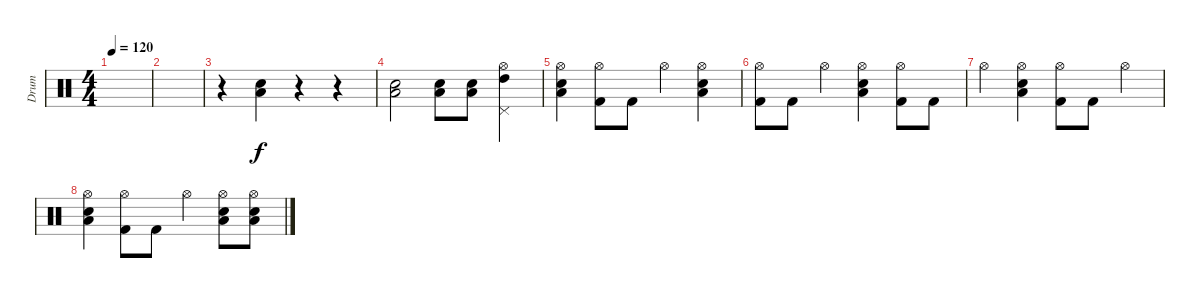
\track ("Drum" "Drum") {instrument percussion}
\staff {score}
\articulation defaults
\ts (4 4)
\tempo 120
\clef neutral
\ks c
|
|
r.4 ("Low Floor Tom (hit)" "Snare (hit) 2").4 r.4 r.4 |
("Low Floor Tom (hit)" "Snare (hit) 2").2 ("Low Floor Tom (hit)" "Snare (hit) 2").8 ("Low Tom (hit)" "Snare (hit) 2").8 ("High Tom (hit)" "Pedal Hi-Hat (hit)" "Hi-Hat (open)").4 |
("Low Floor Tom (hit)" "Snare (hit) 2" "Hi-Hat (open)").4 ("Kick (hit) 2" "Hi-Hat (open)").8 "Kick (hit) 2".8 "Hi-Hat (open)".4 ("Low Floor Tom (hit)" "Snare (hit) 2" "Hi-Hat (open)").4 |
("Kick (hit) 2" "Hi-Hat (open)").8 "Kick (hit) 2".8 "Hi-Hat (open)".4 ("Snare (hit) 2" "Low Floor Tom (hit)" "Hi-Hat (open)").4 ("Kick (hit) 2" "Hi-Hat (open)").8 "Kick (hit) 2".8 |
"Hi-Hat (open)".4 ("Low Floor Tom (hit)" "Snare (hit) 2" "Hi-Hat (open)").4 ("Hi-Hat (open)" "Kick (hit) 2").8 "Kick (hit) 2".8 "Hi-Hat (open)".4 |
("Low Floor Tom (hit)" "Snare (hit) 2" "Hi-Hat (open)").4 ("Kick (hit) 2" "Hi-Hat (open)").8 "Kick (hit) 2".8 "Hi-Hat (open)".4 ("Snare (hit) 2" "Low Floor Tom (hit)" "Hi-Hat (open)").8 ("Snare (hit) 2" "Low Tom (hit)" "Hi-Hat (open)").8
